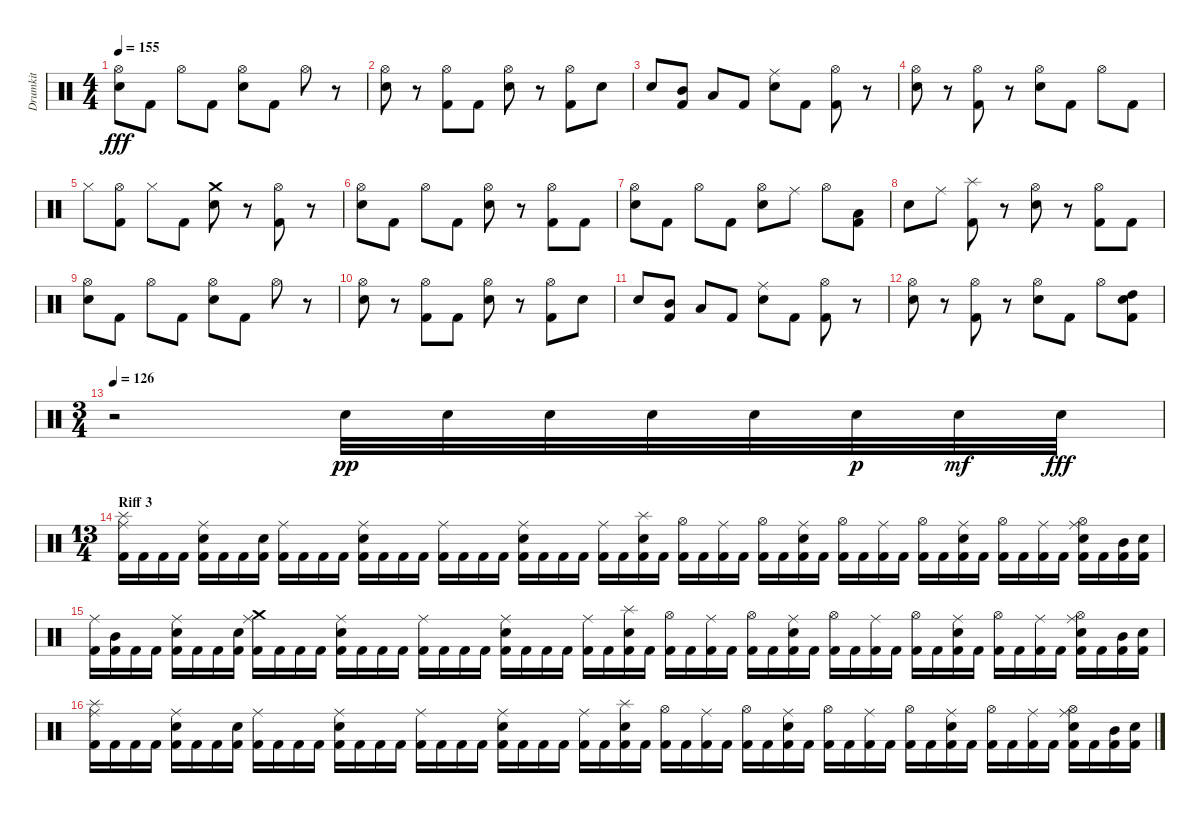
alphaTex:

\track ("Drumkit" "Drumkit") {instrument percussion}
\staff {score}
\articulation defaults
\ts (4 4)
\tempo 155
\clef neutral
\ks c
("Snare (hit) 2" "Hi-Hat (open)").8{dy fff} "Kick (hit) 2".8 "Hi-Hat (open)".8 "Kick (hit) 2".8 ("Snare (hit) 2" "Hi-Hat (open)").8 "Kick (hit) 2".8 "Hi-Hat (open)".8 r.8 |
("Snare (hit) 2" "Hi-Hat (open)").8 r.8 ("Kick (hit) 2" "Hi-Hat (open)").8 "Kick (hit) 2".8 ("Snare (hit) 2" "Hi-Hat (open)").8 r.8 ("Kick (hit) 2" "Hi-Hat (open)").8 "Snare (hit) 2".8 |
"Snare (hit) 2".8 ("Kick (hit) 2" "Mid Tom (hit)").8 "Low Tom (hit)".8 "Kick (hit) 2".8 ("Snare (hit) 2" "Ride (middle)").8 "Kick (hit) 2".8 ("Kick (hit) 2" "Hi-Hat (open)").8 r.8 |
("Snare (hit) 2" "Hi-Hat (open)").8 r.8 ("Kick (hit) 2" "Hi-Hat (open)").8 r.8 ("Snare (hit) 2" "Hi-Hat (open)").8 "Kick (hit) 2".8 "Hi-Hat (open)".8 "Kick (hit) 2".8 |
"Hi-Hat (closed)".8 ("Kick (hit) 2" "Hi-Hat (open)").8 "Hi-Hat (closed)".8 "Kick (hit) 2".8 ("Snare (hit) 2" "Crash medium (hit)").8 r.8 ("Kick (hit) 2" "Hi-Hat (open)").8 r.8 |
("Snare (hit) 2" "Hi-Hat (open)").8 "Kick (hit) 2".8 "Hi-Hat (open)".8 "Kick (hit) 2".8 ("Snare (hit) 2" "Hi-Hat (open)").8 r.8 ("Kick (hit) 2" "Hi-Hat (open)").8 "Kick (hit) 2".8 |
("Snare (hit) 2" "Hi-Hat (open)").8 "Kick (hit) 2".8 "Hi-Hat (open)".8 "Kick (hit) 2".8 ("Snare (hit) 2" "Hi-Hat (open)").8 "Ride (middle)".8 "Hi-Hat (open)".8 ("Kick (hit) 2" "Low Tom (hit)").8 |
"Snare (hit) 2".8 "Ride (middle)".8 ("Kick (hit) 2" "Splash (hit)").8 r.8 ("Snare (hit) 2" "Hi-Hat (open)").8 r.8 ("Kick (hit) 2" "Hi-Hat (open)").8 "Kick (hit) 2".8 |
("Snare (hit) 2" "Hi-Hat (open)").8 "Kick (hit) 2".8 "Hi-Hat (open)".8 "Kick (hit) 2".8 ("Snare (hit) 2" "Hi-Hat (open)").8 "Kick (hit) 2".8 "Hi-Hat (open)".8 r.8 |
("Snare (hit) 2" "Hi-Hat (open)").8 r.8 ("Kick (hit) 2" "Hi-Hat (open)").8 "Kick (hit) 2".8 ("Snare (hit) 2" "Hi-Hat (open)").8 r.8 ("Kick (hit) 2" "Hi-Hat (open)").8 "Snare (hit) 2".8 |
"Snare (hit) 2".8 ("Kick (hit) 2" "Mid Tom (hit)").8 "Low Tom (hit)".8 "Kick (hit) 2".8 ("Snare (hit) 2" "Ride (middle)").8 "Kick (hit) 2".8 ("Kick (hit) 2" "Hi-Hat (open)").8 r.8 |
("Snare (hit) 2" "Hi-Hat (open)").8 r.8 ("Kick (hit) 2" "Hi-Hat (open)").8 r.8 ("Snare (hit) 2" "Hi-Hat (open)").8 "Kick (hit) 2".8 "Hi-Hat (open)".8 ("Kick (hit) 2" "Snare (hit) 2" "High Tom (hit)").8 |
\ts (3 4)
\tempo 126
r.2 "Snare (hit) 2".32{dy pp} "Snare (hit) 2".32 "Snare (hit) 2".32 "Snare (hit) 2".32 "Snare (hit) 2".32 "Snare (hit) 2".32{dy p} "Snare (hit) 2".32{dy mf} "Snare (hit) 2".32{dy fff} |
\ts (13 4)
\section ("" "Riff 3")
("Kick (hit) 2" "Ride (middle)" "Splash (hit)").16 "Kick (hit) 2".16 "Kick (hit) 2".16 "Kick (hit) 2".16 ("Kick (hit) 2" "Snare (hit) 2" "Ride (middle)").16 "Kick (hit) 2".16 "Kick (hit) 2".16 ("Kick (hit) 2" "Snare (hit) 2").16 ("Kick (hit) 2" "Ride (middle)").16 "Kick (hit) 2".16 "Kick (hit) 2".16 "Kick (hit) 2".16 ("Kick (hit) 2" "Snare (hit) 2" "Ride (middle)").16 "Kick (hit) 2".16 "Kick (hit) 2".16 "Kick (hit) 2".16 ("Kick (hit) 2" "Ride (middle)").16 "Kick (hit) 2".16 "Kick (hit) 2".16 "Kick (hit) 2".16 ("Kick (hit) 2" "Snare (hit) 2" "Ride (middle)").16 "Kick (hit) 2".16 "Kick (hit) 2".16 "Kick (hit) 2".16 ("Kick (hit) 2" "Ride (middle)").16 "Kick (hit) 2".16 ("Kick (hit) 2" "Snare (hit) 2" "Splash (hit)").16 "Kick (hit) 2".16 ("Kick (hit) 2" "Hi-Hat (open)").16 "Kick (hit) 2".16 ("Kick (hit) 2" "Ride (middle)").16 "Kick (hit) 2".16 ("Kick (hit) 2" "Hi-Hat (open)").16 "Kick (hit) 2".16 ("Kick (hit) 2" "Snare (hit) 2" "Ride (middle)").16 "Kick (hit) 2".16 ("Kick (hit) 2" "Hi-Hat (open)").16 "Kick (hit) 2".16 ("Kick (hit) 2" "Ride (middle)").16 "Kick (hit) 2".16 ("Kick (hit) 2" "Hi-Hat (open)").16 "Kick (hit) 2".16 ("Kick (hit) 2" "Snare (hit) 2" "Ride (middle)").16 "Kick (hit) 2".16 ("Kick (hit) 2" "Hi-Hat (open)").16 "Kick (hit) 2".16 ("Kick (hit) 2" "Ride (middle)").16 "Kick (hit) 2".16 ("Kick (hit) 2" "Snare (hit) 2" "Hi-Hat (open)" "Ride (middle)").16 "Kick (hit) 2".16 ("Kick (hit) 2" "Mid Tom (hit)").16 ("Kick (hit) 2" "Snare (hit) 2").16 |
("Kick (hit) 2" "Ride (middle)").16 ("Kick (hit) 2" "Mid Tom (hit)").16 "Kick (hit) 2".16 "Kick (hit) 2".16 ("Kick (hit) 2" "Snare (hit) 2" "Ride (middle)").16 "Kick (hit) 2".16 "Kick (hit) 2".16 ("Kick (hit) 2" "Snare (hit) 2").16 ("Kick (hit) 2" "Ride (middle)" "Crash medium (hit)").16 "Kick (hit) 2".16 "Kick (hit) 2".16 "Kick (hit) 2".16 ("Kick (hit) 2" "Snare (hit) 2" "Ride (middle)").16 "Kick (hit) 2".16 "Kick (hit) 2".16 "Kick (hit) 2".16 ("Kick (hit) 2" "Ride (middle)").16 "Kick (hit) 2".16 "Kick (hit) 2".16 "Kick (hit) 2".16 ("Kick (hit) 2" "Snare (hit) 2" "Ride (middle)").16 "Kick (hit) 2".16 "Kick (hit) 2".16 "Kick (hit) 2".16 ("Kick (hit) 2" "Ride (middle)").16 "Kick (hit) 2".16 ("Kick (hit) 2" "Snare (hit) 2" "Splash (hit)").16 "Kick (hit) 2".16 ("Kick (hit) 2" "Hi-Hat (open)").16 "Kick (hit) 2".16 ("Kick (hit) 2" "Ride (middle)").16 "Kick (hit) 2".16 ("Kick (hit) 2" "Hi-Hat (open)").16 "Kick (hit) 2".16 ("Kick (hit) 2" "Snare (hit) 2" "Ride (middle)").16 "Kick (hit) 2".16 ("Kick (hit) 2" "Hi-Hat (open)").16 "Kick (hit) 2".16 ("Kick (hit) 2" "Ride (middle)").16 "Kick (hit) 2".16 ("Kick (hit) 2" "Hi-Hat (open)").16 "Kick (hit) 2".16 ("Kick (hit) 2" "Snare (hit) 2" "Ride (middle)").16 "Kick (hit) 2".16 ("Kick (hit) 2" "Hi-Hat (open)").16 "Kick (hit) 2".16 ("Kick (hit) 2" "Ride (middle)").16 "Kick (hit) 2".16 ("Kick (hit) 2" "Snare (hit) 2" "Hi-Hat (open)" "Ride (middle)").16 "Kick (hit) 2".16 ("Kick (hit) 2" "Mid Tom (hit)").16 ("Kick (hit) 2" "Snare (hit) 2").16 |
("Kick (hit) 2" "Ride (middle)" "Splash (hit)").16 "Kick (hit) 2".16 "Kick (hit) 2".16 "Kick (hit) 2".16 ("Kick (hit) 2" "Snare (hit) 2" "Ride (middle)").16 "Kick (hit) 2".16 "Kick (hit) 2".16 ("Kick (hit) 2" "Snare (hit) 2").16 ("Kick (hit) 2" "Ride (middle)").16 "Kick (hit) 2".16 "Kick (hit) 2".16 "Kick (hit) 2".16 ("Kick (hit) 2" "Snare (hit) 2" "Ride (middle)").16 "Kick (hit) 2".16 "Kick (hit) 2".16 "Kick (hit) 2".16 ("Kick (hit) 2" "Ride (middle)").16 "Kick (hit) 2".16 "Kick (hit) 2".16 "Kick (hit) 2".16 ("Kick (hit) 2" "Snare (hit) 2" "Ride (middle)").16 "Kick (hit) 2".16 "Kick (hit) 2".16 "Kick (hit) 2".16 ("Kick (hit) 2" "Ride (middle)").16 "Kick (hit) 2".16 ("Kick (hit) 2" "Snare (hit) 2" "Splash (hit)").16 "Kick (hit) 2".16 ("Kick (hit) 2" "Hi-Hat (open)").16 "Kick (hit) 2".16 ("Kick (hit) 2" "Ride (middle)").16 "Kick (hit) 2".16 ("Kick (hit) 2" "Hi-Hat (open)").16 "Kick (hit) 2".16 ("Kick (hit) 2" "Snare (hit) 2" "Ride (middle)").16 "Kick (hit) 2".16 ("Kick (hit) 2" "Hi-Hat (open)").16 "Kick (hit) 2".16 ("Kick (hit) 2" "Ride (middle)").16 "Kick (hit) 2".16 ("Kick (hit) 2" "Hi-Hat (open)").16 "Kick (hit) 2".16 ("Kick (hit) 2" "Snare (hit) 2" "Ride (middle)").16 "Kick (hit) 2".16 ("Kick (hit) 2" "Hi-Hat (open)").16 "Kick (hit) 2".16 ("Kick (hit) 2" "Ride (middle)").16 "Kick (hit) 2".16 ("Kick (hit) 2" "Snare (hit) 2" "Hi-Hat (open)" "Ride (middle)").16 "Kick (hit) 2".16 ("Kick (hit) 2" "Mid Tom (hit)").16 ("Kick (hit) 2" "Snare (hit) 2").16
